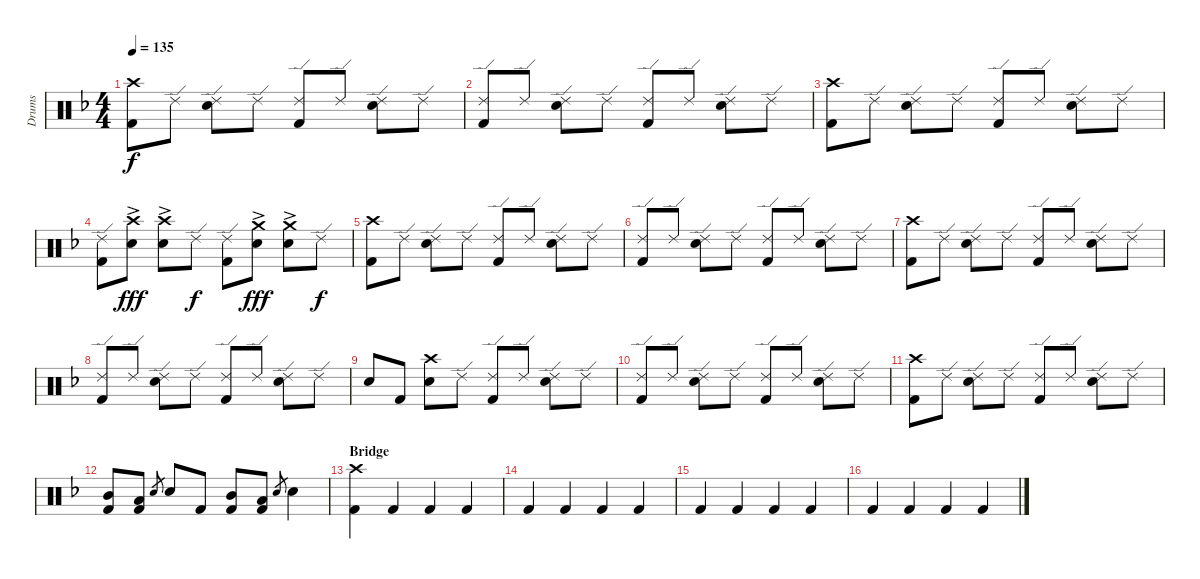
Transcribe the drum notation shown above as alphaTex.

\track ("Drums" "Drums") {instrument percussion}
\staff {score}
\articulation defaults
\ts (4 4)
\tempo 135
\clef neutral
\ks f
("Crash high (hit)" "Kick (hit) 2").8{dy f} "Ride (edge) 2".8 ("Ride (edge) 2" "Electric Snare (hit)").8 "Ride (edge) 2".8 ("Ride (edge) 2" "Kick (hit) 2").8 "Ride (edge) 2".8 ("Ride (edge) 2" "Electric Snare (hit)").8 "Ride (edge) 2".8 |
("Ride (edge) 2" "Kick (hit) 2").8 "Ride (edge) 2".8 ("Ride (edge) 2" "Electric Snare (hit)").8 "Ride (edge) 2".8 ("Ride (edge) 2" "Kick (hit) 2").8 "Ride (edge) 2".8 ("Ride (edge) 2" "Electric Snare (hit)").8 "Ride (edge) 2".8 |
("Crash high (hit)" "Kick (hit) 2").8 "Ride (edge) 2".8 ("Ride (edge) 2" "Electric Snare (hit)").8 "Ride (edge) 2".8 ("Ride (edge) 2" "Kick (hit) 2").8 "Ride (edge) 2".8 ("Ride (edge) 2" "Electric Snare (hit)").8 "Ride (edge) 2".8 |
("Ride (edge) 2" "Kick (hit) 2").8 ("Crash high (hit)" "Electric Snare (hit)"{ac}).8{dy fff} ("Crash high (hit)" "Electric Snare (hit)"{ac}).8 "Ride (edge) 2".8{dy f} ("Ride (edge) 2" "Kick (hit) 2").8 ("Crash medium (hit)" "Electric Snare (hit)"{ac}).8{dy fff} ("Crash medium (hit)" "Electric Snare (hit)"{ac}).8 "Ride (edge) 2".8{dy f} |
("Crash high (hit)" "Kick (hit) 2").8 "Ride (edge) 2".8 ("Ride (edge) 2" "Electric Snare (hit)").8 "Ride (edge) 2".8 ("Ride (edge) 2" "Kick (hit) 2").8 "Ride (edge) 2".8 ("Ride (edge) 2" "Electric Snare (hit)").8 "Ride (edge) 2".8 |
("Ride (edge) 2" "Kick (hit) 2").8 "Ride (edge) 2".8 ("Ride (edge) 2" "Electric Snare (hit)").8 "Ride (edge) 2".8 ("Ride (edge) 2" "Kick (hit) 2").8 "Ride (edge) 2".8 ("Ride (edge) 2" "Electric Snare (hit)").8 "Ride (edge) 2".8 |
("Crash high (hit)" "Kick (hit) 2").8 "Ride (edge) 2".8 ("Ride (edge) 2" "Electric Snare (hit)").8 "Ride (edge) 2".8 ("Ride (edge) 2" "Kick (hit) 2").8 "Ride (edge) 2".8 ("Ride (edge) 2" "Electric Snare (hit)").8 "Ride (edge) 2".8 |
("Ride (edge) 2" "Kick (hit) 2").8 "Ride (edge) 2".8 ("Ride (edge) 2" "Electric Snare (hit)").8 "Ride (edge) 2".8 ("Ride (edge) 2" "Kick (hit) 2").8 "Ride (edge) 2".8 ("Ride (edge) 2" "Electric Snare (hit)").8 "Ride (edge) 2".8 |
"Electric Snare (hit)".8 "Kick (hit) 2".8 ("Crash high (hit)" "Electric Snare (hit)").8 "Ride (edge) 2".8 ("Ride (edge) 2" "Kick (hit) 2").8 "Ride (edge) 2".8 ("Ride (edge) 2" "Electric Snare (hit)").8 "Ride (edge) 2".8 |
("Ride (edge) 2" "Kick (hit) 2").8 "Ride (edge) 2".8 ("Ride (edge) 2" "Electric Snare (hit)").8 "Ride (edge) 2".8 ("Ride (edge) 2" "Kick (hit) 2").8 "Ride (edge) 2".8 ("Ride (edge) 2" "Electric Snare (hit)").8 "Ride (edge) 2".8 |
("Crash high (hit)" "Kick (hit) 2").8 "Ride (edge) 2".8 ("Ride (edge) 2" "Electric Snare (hit)").8 "Ride (edge) 2".8 ("Ride (edge) 2" "Kick (hit) 2").8 "Ride (edge) 2".8 ("Ride (edge) 2" "Electric Snare (hit)").8 "Ride (edge) 2".8 |
("Mid Tom (hit)" "Kick (hit) 2").8 ("Low Tom (hit)" "Kick (hit) 2").8 "Snare (hit) 2".8{gr} "Electric Snare (hit)".8 "Kick (hit) 2".8 ("Mid Tom (hit)" "Kick (hit) 2").8 ("Low Tom (hit)" "Kick (hit) 2").8 "Snare (hit) 2".8{gr} "Electric Snare (hit)".4 |
\section ("" "Bridge")
("Crash high (hit)" "Kick (hit) 2").4 "Kick (hit) 2".4 "Kick (hit) 2".4 "Kick (hit) 2".4 |
"Kick (hit) 2".4 "Kick (hit) 2".4 "Kick (hit) 2".4 "Kick (hit) 2".4 |
"Kick (hit) 2".4 "Kick (hit) 2".4 "Kick (hit) 2".4 "Kick (hit) 2".4 |
"Kick (hit) 2".4 "Kick (hit) 2".4 "Kick (hit) 2".4 "Kick (hit) 2".4
